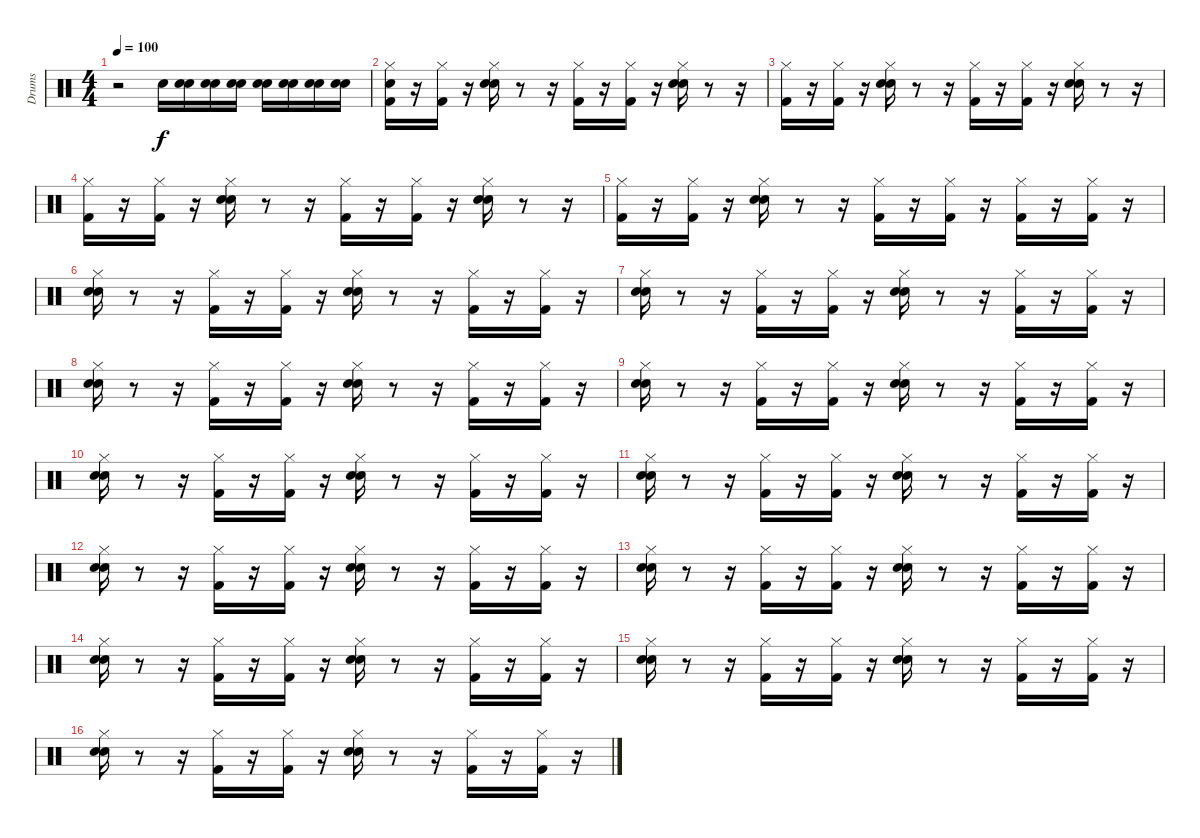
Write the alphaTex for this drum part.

\track ("Drums" "Drums") {instrument percussion}
\staff {score}
\articulation defaults
\ts (4 4)
\tempo 100
\clef neutral
\ks c
r.2{dy f} "Snare (hit) 2".16 ("Snare (hit)" "Snare (hit) 2").16 ("Snare (hit)" "Snare (hit) 2").16 ("Snare (hit)" "Snare (hit) 2").16 ("Snare (hit)" "Snare (hit) 2").16 ("Snare (hit)" "Snare (hit) 2").16 ("Snare (hit)" "Snare (hit) 2").16 ("Snare (hit)" "Snare (hit) 2").16 |
("Snare (hit)" "Kick (hit) 2" "Hi-Hat (closed)").16 r.16 ("Kick (hit) 2" "Hi-Hat (closed)").16 r.16 ("Hand Clap (hit)" "Hi-Hat (closed)" "Snare (hit) 2").16 r.8 r.16 ("Hi-Hat (closed)" "Kick (hit) 2").16 r.16 ("Hi-Hat (closed)" "Kick (hit) 2").16 r.16 ("Snare (hit) 2" "Hand Clap (hit)" "Hi-Hat (closed)").16 r.8 r.16 |
("Kick (hit) 2" "Hi-Hat (closed)").16 r.16 ("Hi-Hat (closed)" "Kick (hit) 2").16 r.16 ("Hand Clap (hit)" "Hi-Hat (closed)" "Snare (hit) 2").16 r.8 r.16 ("Kick (hit) 2" "Hi-Hat (closed)").16 r.16 ("Hi-Hat (closed)" "Kick (hit) 2").16 r.16 ("Snare (hit) 2" "Hand Clap (hit)" "Hi-Hat (closed)").16 r.8 r.16 |
("Hi-Hat (closed)" "Kick (hit) 2").16 r.16 ("Hi-Hat (closed)" "Kick (hit) 2").16 r.16 ("Snare (hit) 2" "Hand Clap (hit)" "Hi-Hat (closed)").16 r.8 r.16 ("Hi-Hat (closed)" "Kick (hit) 2").16 r.16 ("Kick (hit) 2" "Hi-Hat (closed)").16 r.16 ("Snare (hit) 2" "Hand Clap (hit)" "Hi-Hat (closed)").16 r.8 r.16 |
("Kick (hit) 2" "Hi-Hat (closed)").16 r.16 ("Hi-Hat (closed)" "Kick (hit) 2").16 r.16 ("Snare (hit) 2" "Hi-Hat (closed)" "Hand Clap (hit)").16 r.8 r.16 ("Kick (hit) 2" "Hi-Hat (closed)").16 r.16 ("Hi-Hat (closed)" "Kick (hit) 2").16 r.16 ("Hi-Hat (closed)" "Kick (hit) 2").16 r.16 ("Hi-Hat (closed)" "Kick (hit) 2").16 r.16 |
("Hi-Hat (closed)" "Hand Clap (hit)" "Snare (hit) 2").16 r.8 r.16 ("Hi-Hat (closed)" "Kick (hit) 2").16 r.16 ("Hi-Hat (closed)" "Kick (hit) 2").16 r.16 ("Hand Clap (hit)" "Snare (hit) 2" "Hi-Hat (closed)").16 r.8 r.16 ("Kick (hit) 2" "Hi-Hat (closed)").16 r.16 ("Kick (hit) 2" "Hi-Hat (closed)").16 r.16 |
("Hand Clap (hit)" "Hi-Hat (closed)" "Snare (hit) 2").16 r.8 r.16 ("Kick (hit) 2" "Hi-Hat (closed)").16 r.16 ("Hi-Hat (closed)" "Kick (hit) 2").16 r.16 ("Snare (hit) 2" "Hi-Hat (closed)" "Hand Clap (hit)").16 r.8 r.16 ("Kick (hit) 2" "Hi-Hat (closed)").16 r.16 ("Kick (hit) 2" "Hi-Hat (closed)").16 r.16 |
("Hi-Hat (closed)" "Snare (hit) 2" "Hand Clap (hit)").16 r.8 r.16 ("Kick (hit) 2" "Hi-Hat (closed)").16 r.16 ("Kick (hit) 2" "Hi-Hat (closed)").16 r.16 ("Hi-Hat (closed)" "Hand Clap (hit)" "Snare (hit) 2").16 r.8 r.16 ("Hi-Hat (closed)" "Kick (hit) 2").16 r.16 ("Hi-Hat (closed)" "Kick (hit) 2").16 r.16 |
("Hand Clap (hit)" "Hi-Hat (closed)" "Snare (hit) 2").16 r.8 r.16 ("Hi-Hat (closed)" "Kick (hit) 2").16 r.16 ("Kick (hit) 2" "Hi-Hat (closed)").16 r.16 ("Hi-Hat (closed)" "Snare (hit) 2" "Hand Clap (hit)").16 r.8 r.16 ("Kick (hit) 2" "Hi-Hat (closed)").16 r.16 ("Kick (hit) 2" "Hi-Hat (closed)").16 r.16 |
("Hi-Hat (closed)" "Snare (hit) 2" "Hand Clap (hit)").16 r.8 r.16 ("Kick (hit) 2" "Hi-Hat (closed)").16 r.16 ("Hi-Hat (closed)" "Kick (hit) 2").16 r.16 ("Hand Clap (hit)" "Hi-Hat (closed)" "Snare (hit) 2").16 r.8 r.16 ("Kick (hit) 2" "Hi-Hat (closed)").16 r.16 ("Kick (hit) 2" "Hi-Hat (closed)").16 r.16 |
("Hi-Hat (closed)" "Hand Clap (hit)" "Snare (hit) 2").16 r.8 r.16 ("Hi-Hat (closed)" "Kick (hit) 2").16 r.16 ("Kick (hit) 2" "Hi-Hat (closed)").16 r.16 ("Snare (hit) 2" "Hi-Hat (closed)" "Hand Clap (hit)").16 r.8 r.16 ("Hi-Hat (closed)" "Kick (hit) 2").16 r.16 ("Hi-Hat (closed)" "Kick (hit) 2").16 r.16 |
("Hand Clap (hit)" "Snare (hit) 2" "Hi-Hat (closed)").16 r.8 r.16 ("Kick (hit) 2" "Hi-Hat (closed)").16 r.16 ("Hi-Hat (closed)" "Kick (hit) 2").16 r.16 ("Hand Clap (hit)" "Snare (hit) 2" "Hi-Hat (closed)").16 r.8 r.16 ("Kick (hit) 2" "Hi-Hat (closed)").16 r.16 ("Kick (hit) 2" "Hi-Hat (closed)").16 r.16 |
("Snare (hit) 2" "Hi-Hat (closed)" "Hand Clap (hit)").16 r.8 r.16 ("Hi-Hat (closed)" "Kick (hit) 2").16 r.16 ("Hi-Hat (closed)" "Kick (hit) 2").16 r.16 ("Hi-Hat (closed)" "Hand Clap (hit)" "Snare (hit) 2").16 r.8 r.16 ("Hi-Hat (closed)" "Kick (hit) 2").16 r.16 ("Kick (hit) 2" "Hi-Hat (closed)").16 r.16 |
("Hand Clap (hit)" "Snare (hit) 2" "Hi-Hat (closed)").16 r.8 r.16 ("Hi-Hat (closed)" "Kick (hit) 2").16 r.16 ("Kick (hit) 2" "Hi-Hat (closed)").16 r.16 ("Hi-Hat (closed)" "Snare (hit) 2" "Hand Clap (hit)").16 r.8 r.16 ("Kick (hit) 2" "Hi-Hat (closed)").16 r.16 ("Hi-Hat (closed)" "Kick (hit) 2").16 r.16 |
("Snare (hit) 2" "Hand Clap (hit)" "Hi-Hat (closed)").16 r.8 r.16 ("Kick (hit) 2" "Hi-Hat (closed)").16 r.16 ("Hi-Hat (closed)" "Kick (hit) 2").16 r.16 ("Hi-Hat (closed)" "Hand Clap (hit)" "Snare (hit) 2").16 r.8 r.16 ("Kick (hit) 2" "Hi-Hat (closed)").16 r.16 ("Hi-Hat (closed)" "Kick (hit) 2").16 r.16 |
("Snare (hit) 2" "Hi-Hat (closed)" "Hand Clap (hit)").16 r.8 r.16 ("Hi-Hat (closed)" "Kick (hit) 2").16 r.16 ("Kick (hit) 2" "Hi-Hat (closed)").16 r.16 ("Snare (hit) 2" "Hand Clap (hit)" "Hi-Hat (closed)").16 r.8 r.16 ("Hi-Hat (closed)" "Kick (hit) 2").16 r.16 ("Kick (hit) 2" "Hi-Hat (closed)").16 r.16
